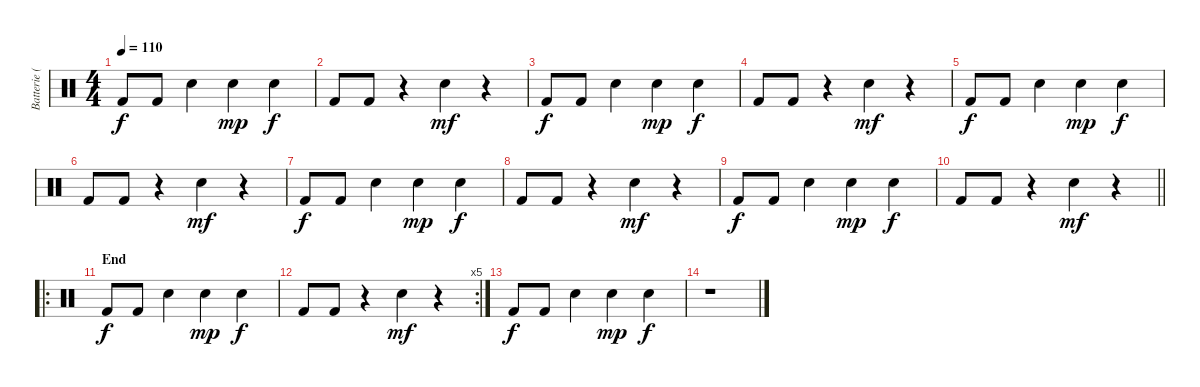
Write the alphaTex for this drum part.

\track ("Batterie (Fanny)" "Batterie (") {instrument percussion}
\staff {score}
\articulation defaults
\ts (4 4)
\tempo 110
\clef neutral
\ks c "Kick (hit) 2".8{dy f} "Kick (hit) 2".8 "Snare (hit) 2".4 "Snare (hit) 2".4{dy mp} "Snare (hit) 2".4{dy f}
|
"Kick (hit) 2".8 "Kick (hit) 2".8 r.4 "Snare (hit) 2".4{dy mf} r.4 |
"Kick (hit) 2".8{dy f} "Kick (hit) 2".8 "Snare (hit) 2".4 "Snare (hit) 2".4{dy mp} "Snare (hit) 2".4{dy f} |
"Kick (hit) 2".8 "Kick (hit) 2".8 r.4 "Snare (hit) 2".4{dy mf} r.4 |
"Kick (hit) 2".8{dy f} "Kick (hit) 2".8 "Snare (hit) 2".4 "Snare (hit) 2".4{dy mp} "Snare (hit) 2".4{dy f} |
"Kick (hit) 2".8 "Kick (hit) 2".8 r.4 "Snare (hit) 2".4{dy mf} r.4 |
"Kick (hit) 2".8{dy f} "Kick (hit) 2".8 "Snare (hit) 2".4 "Snare (hit) 2".4{dy mp} "Snare (hit) 2".4{dy f} |
"Kick (hit) 2".8 "Kick (hit) 2".8 r.4 "Snare (hit) 2".4{dy mf} r.4 |
"Kick (hit) 2".8{dy f} "Kick (hit) 2".8 "Snare (hit) 2".4 "Snare (hit) 2".4{dy mp} "Snare (hit) 2".4{dy f} |
\barLineRight lightlight "Kick (hit) 2".8 "Kick (hit) 2".8
r.4 "Snare (hit) 2".4{dy mf} r.4 |
\ro
\section ("" "End")
"Kick (hit) 2".8{dy f} "Kick (hit) 2".8 "Snare (hit) 2".4 "Snare (hit) 2".4{dy mp} "Snare (hit) 2".4{dy f} |
\rc 5 "Kick (hit) 2".8 "Kick (hit) 2".8
r.4 "Snare (hit) 2".4{dy mf} r.4 |
"Kick (hit) 2".8{dy f} "Kick (hit) 2".8 "Snare (hit) 2".4 "Snare (hit) 2".4{dy mp} "Snare (hit) 2".4{dy f} |
r.1
